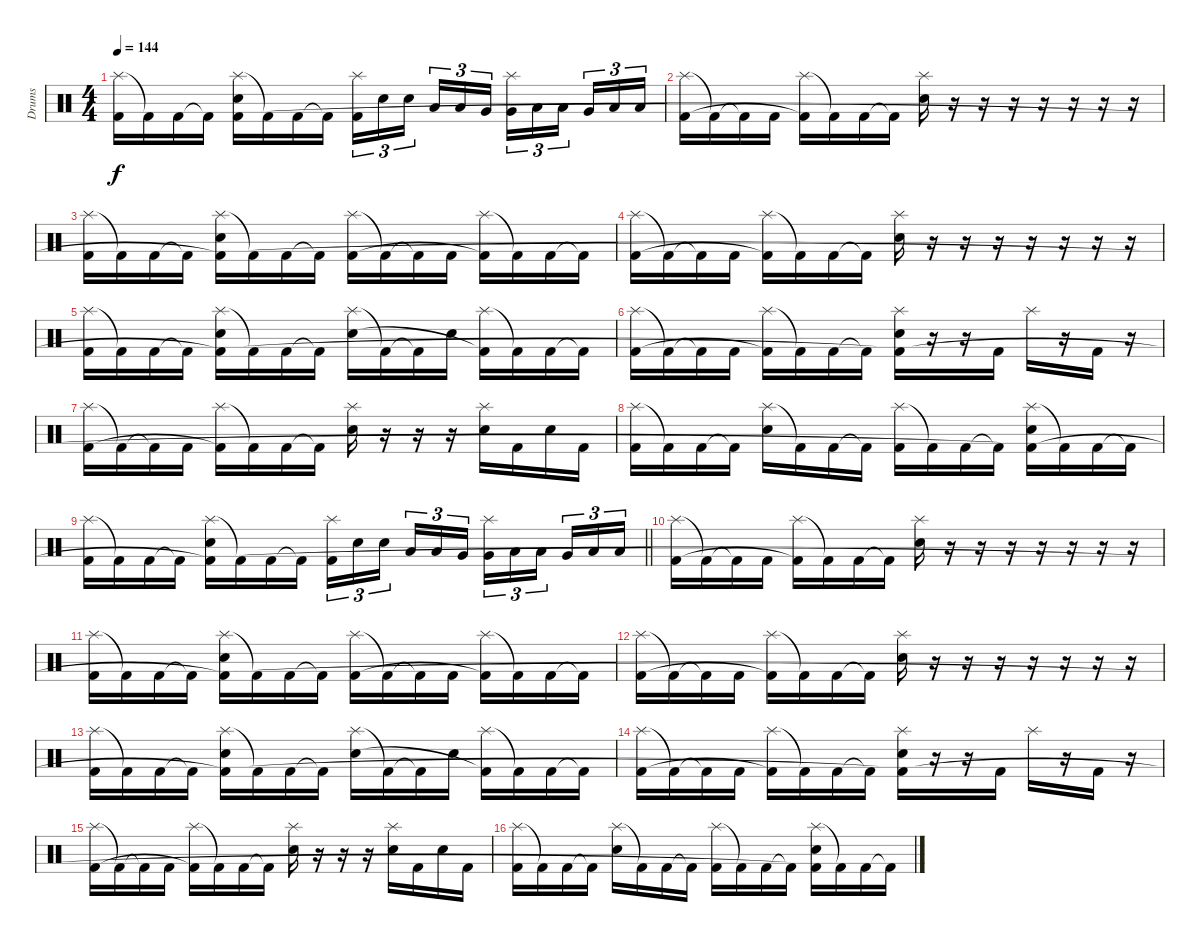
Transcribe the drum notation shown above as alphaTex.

\track ("Drums" "Drums") {instrument percussion}
\staff {score}
\articulation defaults
\ts (4 4)
\tempo 144
\clef neutral
\ks c
("Splash (hit)" "Kick (hit) 2").16{dy f} "Kick (hit) 2"{t}.16 "Kick (hit) 2".16 "Kick (hit) 2"{t}.16 ("Splash (hit)" "Electric Snare (hit)" "Kick (hit) 2"{t}).16 "Kick (hit) 2"{t}.16 "Kick (hit) 2".16 "Kick (hit) 2"{t}.16 ("Splash (hit)" "Kick (hit) 2").16{tu (3 2)} "Electric Snare (hit)".16{tu (3 2)} "Electric Snare (hit)".16{tu (3 2) beam splitsecondary} "Low Tom (hit)".16{tu (3 2)} "Low Tom (hit)".16{tu (3 2)} "Very Low Tom (hit)".16{tu (3 2)} ("Splash (hit)" "Very Low Tom (hit)").16{tu (3 2)} "Low Floor Tom (hit)".16{tu (3 2)} "Low Floor Tom (hit)".16{tu (3 2) beam splitsecondary} "Very Low Tom (hit)".16{tu (3 2)} "Low Floor Tom (hit)".16{tu (3 2)} "Low Floor Tom (hit)".16{tu (3 2)} |
("Splash (hit)" "Kick (hit) 2").16 "Kick (hit) 2"{t}.16 "Kick (hit) 2"{t}.16 "Kick (hit) 2".16 ("Splash (hit)" "Kick (hit) 2"{t}).16 "Kick (hit) 2"{t}.16 "Kick (hit) 2".16 "Kick (hit) 2"{t}.16 ("Splash (hit)" "Electric Snare (hit)").16 r.16 r.16 r.16 r.16 r.16 r.16 r.16 |
("Splash (hit)" "Kick (hit) 2").16 "Kick (hit) 2"{t}.16 "Kick (hit) 2".16 "Kick (hit) 2"{t}.16 ("Splash (hit)" "Electric Snare (hit)" "Kick (hit) 2"{t}).16 "Kick (hit) 2"{t}.16 "Kick (hit) 2".16 "Kick (hit) 2"{t}.16 ("Splash (hit)" "Kick (hit) 2").16 "Kick (hit) 2"{t}.16 "Kick (hit) 2"{t}.16 "Kick (hit) 2".16 ("Splash (hit)" "Kick (hit) 2"{t}).16 "Kick (hit) 2"{t}.16 "Kick (hit) 2".16 "Kick (hit) 2"{t}.16 |
("Splash (hit)" "Kick (hit) 2").16 "Kick (hit) 2"{t}.16 "Kick (hit) 2"{t}.16 "Kick (hit) 2".16 ("Splash (hit)" "Kick (hit) 2"{t}).16 "Kick (hit) 2"{t}.16 "Kick (hit) 2".16 "Kick (hit) 2"{t}.16 ("Splash (hit)" "Electric Snare (hit)").16 r.16 r.16 r.16 r.16 r.16 r.16 r.16 |
("Splash (hit)" "Kick (hit) 2").16 "Kick (hit) 2"{t}.16 "Kick (hit) 2".16 "Kick (hit) 2"{t}.16 ("Splash (hit)" "Electric Snare (hit)" "Kick (hit) 2"{t}).16 "Kick (hit) 2"{t}.16 "Kick (hit) 2".16 "Kick (hit) 2"{t}.16 ("Splash (hit)" "Electric Snare (hit)").16 "Kick (hit) 2"{t}.16 "Kick (hit) 2"{t}.16 "Electric Snare (hit)".16 ("Splash (hit)" "Kick (hit) 2"{t}).16 "Kick (hit) 2"{t}.16 "Kick (hit) 2".16 "Kick (hit) 2"{t}.16 |
("Splash (hit)" "Kick (hit) 2").16 "Kick (hit) 2"{t}.16 "Kick (hit) 2"{t}.16 "Kick (hit) 2".16 ("Splash (hit)" "Kick (hit) 2"{t}).16 "Kick (hit) 2"{t}.16 "Kick (hit) 2".16 "Kick (hit) 2"{t}.16 ("Splash (hit)" "Electric Snare (hit)" "Kick (hit) 2"{t}).16 r.16 r.16 "Kick (hit) 2".16 "Splash (hit)".16 r.16 "Kick (hit) 2".16 r.16 |
("Splash (hit)" "Kick (hit) 2").16 "Kick (hit) 2"{t}.16 "Kick (hit) 2"{t}.16 "Kick (hit) 2".16 ("Splash (hit)" "Kick (hit) 2"{t}).16 "Kick (hit) 2"{t}.16 "Kick (hit) 2".16 "Kick (hit) 2"{t}.16 ("Splash (hit)" "Electric Snare (hit)").16 r.16 r.16 r.16 ("Splash (hit)" "Electric Snare (hit)").16 "Kick (hit) 2".16 "Electric Snare (hit)".16 "Kick (hit) 2".16 |
("Splash (hit)" "Kick (hit) 2").16 "Kick (hit) 2"{t}.16 "Kick (hit) 2".16 "Kick (hit) 2"{t}.16 ("Splash (hit)" "Electric Snare (hit)").16 "Kick (hit) 2"{t}.16 "Kick (hit) 2".16 "Kick (hit) 2"{t}.16 ("Splash (hit)" "Kick (hit) 2").16 "Kick (hit) 2"{t}.16 "Kick (hit) 2".16 "Kick (hit) 2"{t}.16 ("Splash (hit)" "Electric Snare (hit)" "Kick (hit) 2"{t}).16 "Kick (hit) 2"{t}.16 "Kick (hit) 2".16 "Kick (hit) 2"{t}.16 |
\barLineRight lightlight
("Splash (hit)" "Kick (hit) 2").16 "Kick (hit) 2"{t}.16 "Kick (hit) 2".16 "Kick (hit) 2"{t}.16 ("Splash (hit)" "Electric Snare (hit)" "Kick (hit) 2"{t}).16 "Kick (hit) 2"{t}.16 "Kick (hit) 2".16 "Kick (hit) 2"{t}.16 ("Splash (hit)" "Kick (hit) 2").16{tu (3 2)} "Electric Snare (hit)".16{tu (3 2)} "Electric Snare (hit)".16{tu (3 2) beam splitsecondary} "Low Tom (hit)".16{tu (3 2)} "Low Tom (hit)".16{tu (3 2)} "Very Low Tom (hit)".16{tu (3 2)} ("Splash (hit)" "Very Low Tom (hit)").16{tu (3 2)} "Low Floor Tom (hit)".16{tu (3 2)} "Low Floor Tom (hit)".16{tu (3 2) beam splitsecondary} "Very Low Tom (hit)".16{tu (3 2)} "Low Floor Tom (hit)".16{tu (3 2)} "Low Floor Tom (hit)".16{tu (3 2)} |
("Splash (hit)" "Kick (hit) 2").16 "Kick (hit) 2"{t}.16 "Kick (hit) 2"{t}.16 "Kick (hit) 2".16 ("Splash (hit)" "Kick (hit) 2"{t}).16 "Kick (hit) 2"{t}.16 "Kick (hit) 2".16 "Kick (hit) 2"{t}.16 ("Splash (hit)" "Electric Snare (hit)").16 r.16 r.16 r.16 r.16 r.16 r.16 r.16 |
("Splash (hit)" "Kick (hit) 2").16 "Kick (hit) 2"{t}.16 "Kick (hit) 2".16 "Kick (hit) 2"{t}.16 ("Splash (hit)" "Electric Snare (hit)" "Kick (hit) 2"{t}).16 "Kick (hit) 2"{t}.16 "Kick (hit) 2".16 "Kick (hit) 2"{t}.16 ("Splash (hit)" "Kick (hit) 2").16 "Kick (hit) 2"{t}.16 "Kick (hit) 2"{t}.16 "Kick (hit) 2".16 ("Splash (hit)" "Kick (hit) 2"{t}).16 "Kick (hit) 2"{t}.16 "Kick (hit) 2".16 "Kick (hit) 2"{t}.16 |
("Splash (hit)" "Kick (hit) 2").16 "Kick (hit) 2"{t}.16 "Kick (hit) 2"{t}.16 "Kick (hit) 2".16 ("Splash (hit)" "Kick (hit) 2"{t}).16 "Kick (hit) 2"{t}.16 "Kick (hit) 2".16 "Kick (hit) 2"{t}.16 ("Splash (hit)" "Electric Snare (hit)").16 r.16 r.16 r.16 r.16 r.16 r.16 r.16 |
("Splash (hit)" "Kick (hit) 2").16 "Kick (hit) 2"{t}.16 "Kick (hit) 2".16 "Kick (hit) 2"{t}.16 ("Splash (hit)" "Electric Snare (hit)" "Kick (hit) 2"{t}).16 "Kick (hit) 2"{t}.16 "Kick (hit) 2".16 "Kick (hit) 2"{t}.16 ("Splash (hit)" "Electric Snare (hit)").16 "Kick (hit) 2"{t}.16 "Kick (hit) 2"{t}.16 "Electric Snare (hit)".16 ("Splash (hit)" "Kick (hit) 2"{t}).16 "Kick (hit) 2"{t}.16 "Kick (hit) 2".16 "Kick (hit) 2"{t}.16 |
("Splash (hit)" "Kick (hit) 2").16 "Kick (hit) 2"{t}.16 "Kick (hit) 2"{t}.16 "Kick (hit) 2".16 ("Splash (hit)" "Kick (hit) 2"{t}).16 "Kick (hit) 2"{t}.16 "Kick (hit) 2".16 "Kick (hit) 2"{t}.16 ("Splash (hit)" "Electric Snare (hit)" "Kick (hit) 2"{t}).16 r.16 r.16 "Kick (hit) 2".16 "Splash (hit)".16 r.16 "Kick (hit) 2".16 r.16 |
("Splash (hit)" "Kick (hit) 2").16 "Kick (hit) 2"{t}.16 "Kick (hit) 2"{t}.16 "Kick (hit) 2".16 ("Splash (hit)" "Kick (hit) 2"{t}).16 "Kick (hit) 2"{t}.16 "Kick (hit) 2".16 "Kick (hit) 2"{t}.16 ("Splash (hit)" "Electric Snare (hit)").16 r.16 r.16 r.16 ("Splash (hit)" "Electric Snare (hit)").16 "Kick (hit) 2".16 "Electric Snare (hit)".16 "Kick (hit) 2".16 |
("Splash (hit)" "Kick (hit) 2").16 "Kick (hit) 2"{t}.16 "Kick (hit) 2".16 "Kick (hit) 2"{t}.16 ("Splash (hit)" "Electric Snare (hit)").16 "Kick (hit) 2"{t}.16 "Kick (hit) 2".16 "Kick (hit) 2"{t}.16 ("Splash (hit)" "Kick (hit) 2").16 "Kick (hit) 2"{t}.16 "Kick (hit) 2".16 "Kick (hit) 2"{t}.16 ("Splash (hit)" "Electric Snare (hit)" "Kick (hit) 2"{t}).16 "Kick (hit) 2"{t}.16 "Kick (hit) 2".16 "Kick (hit) 2"{t}.16
